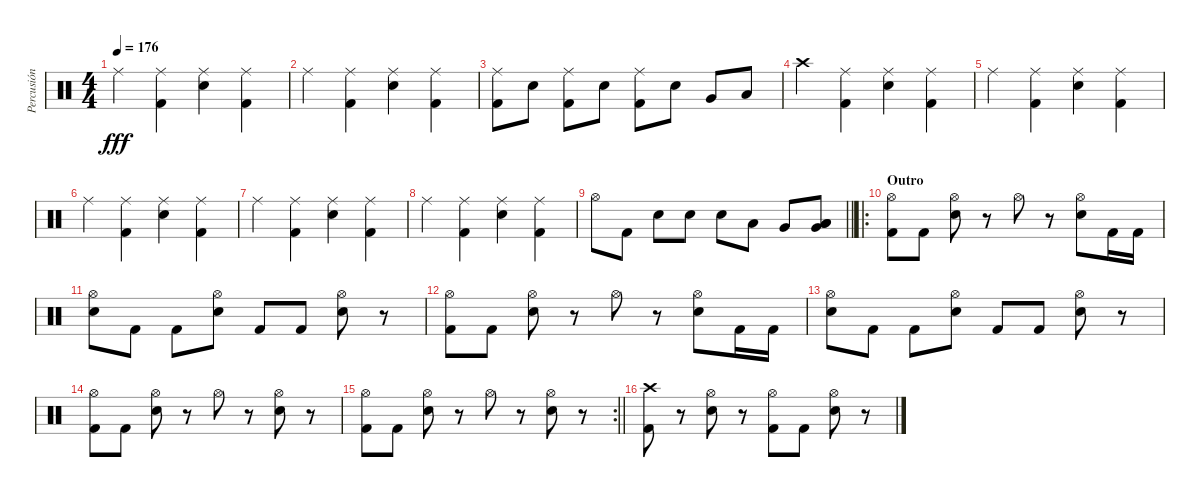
\track ("Percusión" "Percusión") {instrument percussion}
\staff {score}
\articulation defaults
\ts (4 4)
\tempo 176
\clef neutral
\ks c "Ride (middle)".4{dy fff}
("Ride (middle)" "Kick (hit) 2").4 ("Ride (middle)" "Electric Snare (hit)").4 ("Ride (middle)" "Kick (hit) 2").4 |
"Ride (middle)".4 ("Ride (middle)" "Kick (hit) 2").4 ("Ride (middle)" "Electric Snare (hit)").4 ("Ride (middle)" "Kick (hit) 2").4 |
("Ride (middle)" "Kick (hit) 2").8 "Electric Snare (hit)".8 ("Ride (middle)" "Kick (hit) 2").8 "Electric Snare (hit)".8 ("Ride (middle)" "Kick (hit) 2").8 "Electric Snare (hit)".8 "Very Low Tom (hit)".8 "Low Floor Tom (hit)".8 |
"Crash high (hit)".4 ("Ride (middle)" "Kick (hit) 2").4 ("Ride (middle)" "Electric Snare (hit)").4 ("Ride (middle)" "Kick (hit) 2").4 |
"Ride (middle)".4 ("Ride (middle)" "Kick (hit) 2").4 ("Ride (middle)" "Electric Snare (hit)").4 ("Ride (middle)" "Kick (hit) 2").4 |
"Ride (middle)".4 ("Ride (middle)" "Kick (hit) 2").4 ("Ride (middle)" "Electric Snare (hit)").4 ("Ride (middle)" "Kick (hit) 2").4 |
"Ride (middle)".4 ("Ride (middle)" "Kick (hit) 2").4 ("Ride (middle)" "Electric Snare (hit)").4 ("Ride (middle)" "Kick (hit) 2").4 |
"Ride (middle)".4 ("Ride (middle)" "Kick (hit) 2").4 ("Ride (middle)" "Electric Snare (hit)").4 ("Ride (middle)" "Kick (hit) 2").4 |
\barLineRight lightlight "Hi-Hat (open)".8 "Kick (hit) 2".8 "Electric Snare (hit)".8 "Electric Snare (hit)".8 "Electric Snare (hit)".8 "Low Tom (hit)".8 "Very Low Tom (hit)".8
("Very Low Tom (hit)" "Low Floor Tom (hit)" "Low Floor Tom (hit)").8 |
\ro
\section ("" "Outro")
("Hi-Hat (open)" "Kick (hit) 2").8 "Kick (hit) 2".8 ("Hi-Hat (open)" "Electric Snare (hit)").8 r.8 "Hi-Hat (open)".8 r.8 ("Hi-Hat (open)" "Electric Snare (hit)").8 "Kick (hit) 2".16 "Kick (hit) 2".16 |
("Hi-Hat (open)" "Electric Snare (hit)").8 "Kick (hit) 2".8 "Kick (hit) 2".8 ("Hi-Hat (open)" "Electric Snare (hit)").8 "Kick (hit) 2".8 "Kick (hit) 2".8 ("Hi-Hat (open)" "Electric Snare (hit)").8 r.8 |
("Hi-Hat (open)" "Kick (hit) 2").8 "Kick (hit) 2".8 ("Hi-Hat (open)" "Electric Snare (hit)").8 r.8 "Hi-Hat (open)".8 r.8 ("Hi-Hat (open)" "Electric Snare (hit)").8 "Kick (hit) 2".16 "Kick (hit) 2".16 |
("Hi-Hat (open)" "Electric Snare (hit)").8 "Kick (hit) 2".8 "Kick (hit) 2".8 ("Hi-Hat (open)" "Electric Snare (hit)").8 "Kick (hit) 2".8 "Kick (hit) 2".8 ("Hi-Hat (open)" "Electric Snare (hit)").8 r.8 |
("Hi-Hat (open)" "Kick (hit) 2").8 "Kick (hit) 2".8 ("Hi-Hat (open)" "Electric Snare (hit)").8 r.8 "Hi-Hat (open)".8 r.8 ("Hi-Hat (open)" "Electric Snare (hit)").8 r.8 |
\rc 2
\barLineRight lightlight
("Hi-Hat (open)" "Kick (hit) 2").8 "Kick (hit) 2".8 ("Hi-Hat (open)" "Electric Snare (hit)").8 r.8 "Hi-Hat (open)".8 r.8 ("Hi-Hat (open)" "Electric Snare (hit)").8 r.8 |
("Crash high (hit)" "Kick (hit) 2").8 r.8 ("Hi-Hat (open)" "Electric Snare (hit)").8 r.8 ("Hi-Hat (open)" "Kick (hit) 2").8 "Kick (hit) 2".8 ("Hi-Hat (open)" "Electric Snare (hit)").8 r.8
